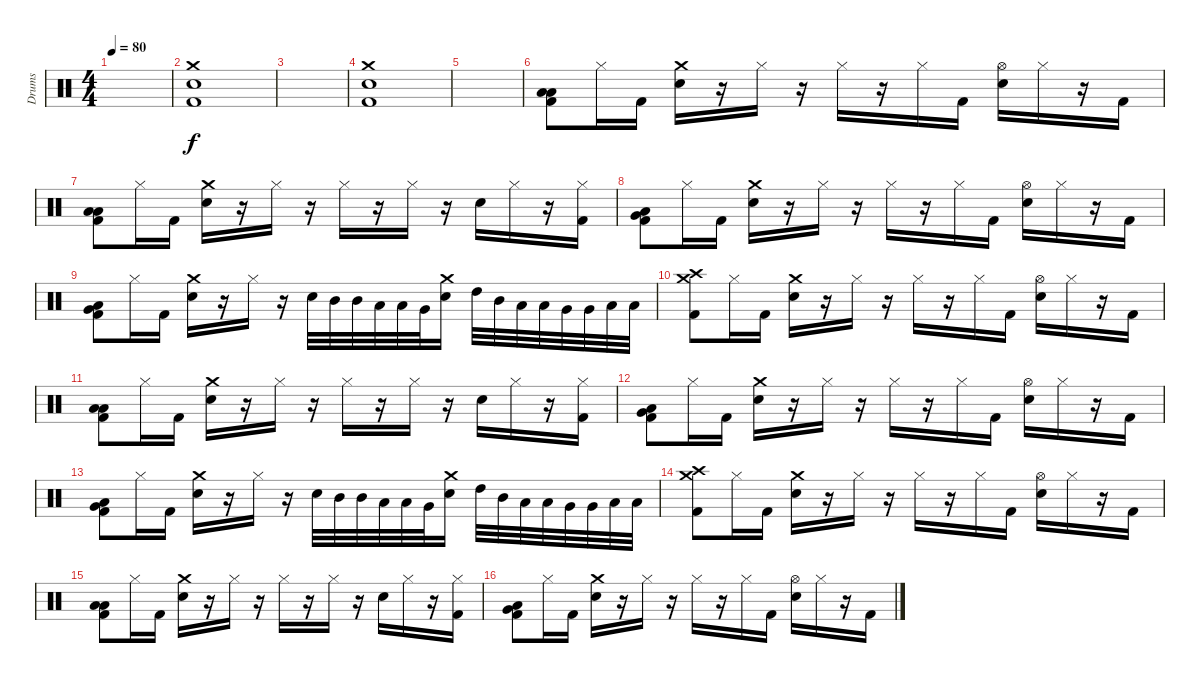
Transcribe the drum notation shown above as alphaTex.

\track ("Drums" "Drums") {instrument percussion}
\staff {score}
\articulation defaults
\ts (4 4)
\tempo 80
\clef neutral
\ks c
|
("Kick (hit) 2" "Snare (hit) 2" "Crash medium (hit)").1 |
|
("Kick (hit) 2" "Snare (hit) 2" "Crash medium (hit)").1 |
|
("Kick (hit) 2" "Low Floor Tom (hit)" "Low Floor Tom (hit)").8 "Hi-Hat (closed)".16 "Kick (hit) 2".16 ("Crash medium (hit)" "Snare (hit) 2").16 r.16 "Hi-Hat (closed)".16 r.16 "Hi-Hat (closed)".16 r.16 "Hi-Hat (closed)".16 "Kick (hit) 2".16 ("Hi-Hat (open)" "Snare (hit) 2").16 "Hi-Hat (closed)".16 r.16 "Kick (hit) 2".16 |
("Kick (hit) 2" "Low Floor Tom (hit)" "Low Floor Tom (hit)").8 "Hi-Hat (closed)".16 "Kick (hit) 2".16 ("Crash medium (hit)" "Snare (hit) 2").16 r.16 "Hi-Hat (closed)".16 r.16 "Hi-Hat (closed)".16 r.16 "Hi-Hat (closed)".16 r.16 "Snare (hit) 2".16 "Hi-Hat (closed)".16 r.16 ("Kick (hit) 2" "Hi-Hat (closed)").16 |
("Kick (hit) 2" "Low Floor Tom (hit)" "Very Low Tom (hit)").8 "Hi-Hat (closed)".16 "Kick (hit) 2".16 ("Crash medium (hit)" "Snare (hit) 2").16 r.16 "Hi-Hat (closed)".16 r.16 "Hi-Hat (closed)".16 r.16 "Hi-Hat (closed)".16 "Kick (hit) 2".16 ("Hi-Hat (open)" "Snare (hit) 2").16 "Hi-Hat (closed)".16 r.16 "Kick (hit) 2".16 |
("Kick (hit) 2" "Low Floor Tom (hit)" "Very Low Tom (hit)").8 "Hi-Hat (closed)".16 "Kick (hit) 2".16 ("Crash medium (hit)" "Snare (hit) 2").16 r.16 "Hi-Hat (closed)".16 r.16 "Snare (hit) 2".32 "Mid Tom (hit)".32 "Mid Tom (hit)".32 "Low Tom (hit)".32 "Low Tom (hit)".32 "Very Low Tom (hit)".32 ("Crash medium (hit)" "Snare (hit) 2").16 "High Tom (hit)".32 "Mid Tom (hit)".32 "Low Tom (hit)".32 "Low Tom (hit)".32 "Very Low Tom (hit)".32 "Very Low Tom (hit)".32 "Low Floor Tom (hit)".32 "Low Floor Tom (hit)".32 |
("Kick (hit) 2" "Crash medium (hit)" "Crash high (hit)").8 "Hi-Hat (closed)".16 "Kick (hit) 2".16 ("Crash medium (hit)" "Snare (hit) 2").16 r.16 "Hi-Hat (closed)".16 r.16 "Hi-Hat (closed)".16 r.16 "Hi-Hat (closed)".16 "Kick (hit) 2".16 ("Hi-Hat (open)" "Snare (hit) 2").16 "Hi-Hat (closed)".16 r.16 "Kick (hit) 2".16 |
("Kick (hit) 2" "Low Floor Tom (hit)" "Low Floor Tom (hit)").8 "Hi-Hat (closed)".16 "Kick (hit) 2".16 ("Crash medium (hit)" "Snare (hit) 2").16 r.16 "Hi-Hat (closed)".16 r.16 "Hi-Hat (closed)".16 r.16 "Hi-Hat (closed)".16 r.16 "Snare (hit) 2".16 "Hi-Hat (closed)".16 r.16 ("Kick (hit) 2" "Hi-Hat (closed)").16 |
("Kick (hit) 2" "Low Floor Tom (hit)" "Very Low Tom (hit)").8 "Hi-Hat (closed)".16 "Kick (hit) 2".16 ("Crash medium (hit)" "Snare (hit) 2").16 r.16 "Hi-Hat (closed)".16 r.16 "Hi-Hat (closed)".16 r.16 "Hi-Hat (closed)".16 "Kick (hit) 2".16 ("Hi-Hat (open)" "Snare (hit) 2").16 "Hi-Hat (closed)".16 r.16 "Kick (hit) 2".16 |
("Kick (hit) 2" "Low Floor Tom (hit)" "Very Low Tom (hit)").8 "Hi-Hat (closed)".16 "Kick (hit) 2".16 ("Crash medium (hit)" "Snare (hit) 2").16 r.16 "Hi-Hat (closed)".16 r.16 "Snare (hit) 2".32 "Mid Tom (hit)".32 "Mid Tom (hit)".32 "Low Tom (hit)".32 "Low Tom (hit)".32 "Very Low Tom (hit)".32 ("Crash medium (hit)" "Snare (hit) 2").16 "High Tom (hit)".32 "Mid Tom (hit)".32 "Low Tom (hit)".32 "Low Tom (hit)".32 "Very Low Tom (hit)".32 "Very Low Tom (hit)".32 "Low Floor Tom (hit)".32 "Low Floor Tom (hit)".32 |
("Kick (hit) 2" "Crash medium (hit)" "Crash high (hit)").8 "Hi-Hat (closed)".16 "Kick (hit) 2".16 ("Crash medium (hit)" "Snare (hit) 2").16 r.16 "Hi-Hat (closed)".16 r.16 "Hi-Hat (closed)".16 r.16 "Hi-Hat (closed)".16 "Kick (hit) 2".16 ("Hi-Hat (open)" "Snare (hit) 2").16 "Hi-Hat (closed)".16 r.16 "Kick (hit) 2".16 |
("Kick (hit) 2" "Low Floor Tom (hit)" "Low Floor Tom (hit)").8 "Hi-Hat (closed)".16 "Kick (hit) 2".16 ("Crash medium (hit)" "Snare (hit) 2").16 r.16 "Hi-Hat (closed)".16 r.16 "Hi-Hat (closed)".16 r.16 "Hi-Hat (closed)".16 r.16 "Snare (hit) 2".16 "Hi-Hat (closed)".16 r.16 ("Kick (hit) 2" "Hi-Hat (closed)").16 |
("Kick (hit) 2" "Low Floor Tom (hit)" "Very Low Tom (hit)").8 "Hi-Hat (closed)".16 "Kick (hit) 2".16 ("Crash medium (hit)" "Snare (hit) 2").16 r.16 "Hi-Hat (closed)".16 r.16 "Hi-Hat (closed)".16 r.16 "Hi-Hat (closed)".16 "Kick (hit) 2".16 ("Hi-Hat (open)" "Snare (hit) 2").16 "Hi-Hat (closed)".16 r.16 "Kick (hit) 2".16
